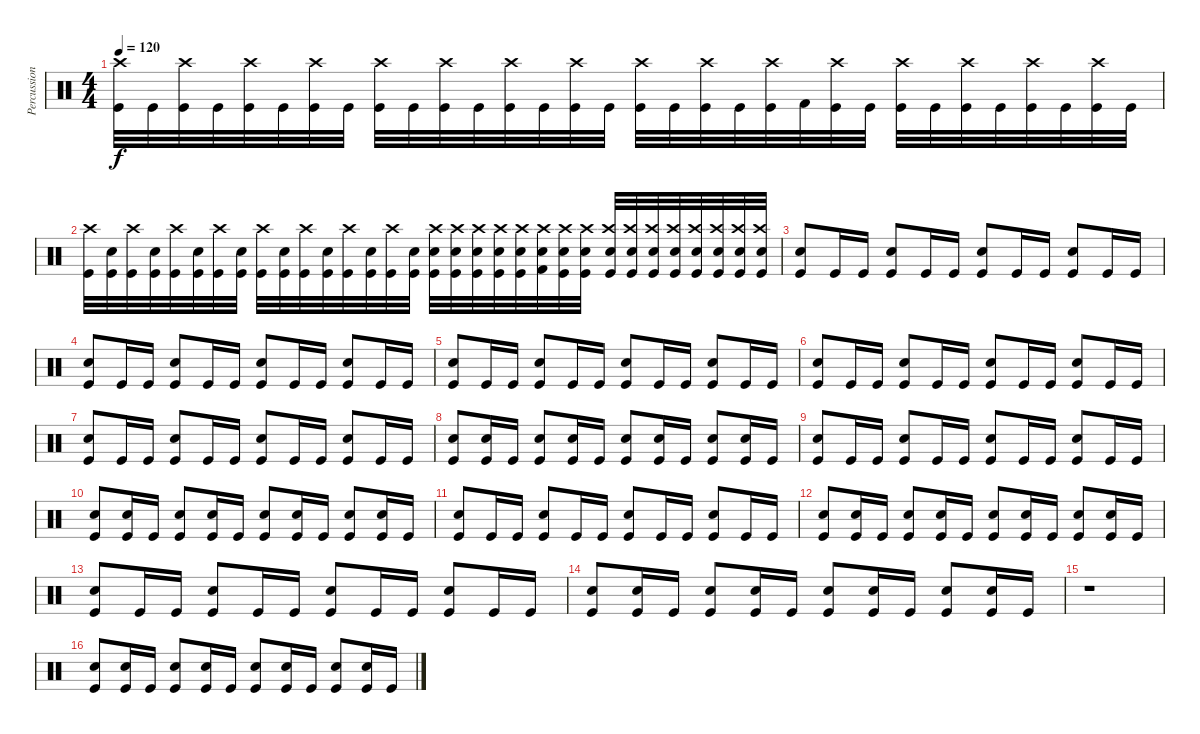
\track ("Percussion" "Percussion") {instrument percussion}
\staff {score}
\articulation defaults
\ts (4 4)
\tempo 120
\clef neutral
\ks c
("Kick (hit)" "Crash high (hit)").32{dy f} "Kick (hit)".32 ("Kick (hit)" "Crash high (hit)").32 "Kick (hit)".32 ("Kick (hit)" "Crash high (hit)").32 "Kick (hit)".32 ("Kick (hit)" "Crash high (hit)").32 "Kick (hit)".32 ("Kick (hit)" "Crash high (hit)").32 "Kick (hit)".32 ("Kick (hit)" "Crash high (hit)").32 "Kick (hit)".32 ("Kick (hit)" "Crash high (hit)").32 "Kick (hit)".32 ("Kick (hit)" "Crash high (hit)").32 "Kick (hit)".32 ("Kick (hit)" "Crash high (hit)").32 "Kick (hit)".32 ("Kick (hit)" "Crash high (hit)").32 "Kick (hit)".32 ("Kick (hit)" "Crash high (hit)").32 "Kick (hit) 2".32 ("Kick (hit)" "Crash high (hit)").32 "Kick (hit)".32 ("Kick (hit)" "Crash high (hit)").32 "Kick (hit)".32 ("Kick (hit)" "Crash high (hit)").32 "Kick (hit)".32 ("Kick (hit)" "Crash high (hit)").32 "Kick (hit)".32 ("Kick (hit)" "Crash high (hit)").32 "Kick (hit)".32 |
("Kick (hit)" "Crash high (hit)").32 ("Kick (hit)" "Snare (hit) 2").32 ("Kick (hit)" "Crash high (hit)").32 ("Kick (hit)" "Snare (hit) 2").32 ("Kick (hit)" "Crash high (hit)").32 ("Kick (hit)" "Snare (hit) 2").32 ("Kick (hit)" "Crash high (hit)").32 ("Kick (hit)" "Snare (hit) 2").32 ("Kick (hit)" "Crash high (hit)").32 ("Kick (hit)" "Snare (hit) 2").32 ("Kick (hit)" "Crash high (hit)").32 ("Kick (hit)" "Snare (hit) 2").32 ("Kick (hit)" "Crash high (hit)").32 ("Kick (hit)" "Snare (hit) 2").32 ("Kick (hit)" "Crash high (hit)").32 ("Kick (hit)" "Snare (hit) 2").32 ("Kick (hit)" "Crash high (hit)" "Snare (hit) 2").32 ("Kick (hit)" "Crash high (hit)" "Snare (hit) 2").32 ("Kick (hit)" "Crash high (hit)" "Snare (hit) 2").32 ("Kick (hit)" "Crash high (hit)" "Snare (hit) 2").32 ("Kick (hit)" "Crash high (hit)" "Snare (hit) 2").32 ("Kick (hit) 2" "Crash high (hit)" "Snare (hit) 2").32 ("Kick (hit)" "Crash high (hit)" "Snare (hit) 2").32 ("Kick (hit)" "Crash high (hit)" "Snare (hit) 2").32 ("Kick (hit)" "Crash high (hit)" "Snare (hit) 2").32 ("Kick (hit)" "Crash high (hit)" "Snare (hit) 2").32 ("Kick (hit)" "Crash high (hit)" "Snare (hit) 2").32 ("Kick (hit)" "Crash high (hit)" "Snare (hit) 2").32 ("Kick (hit)" "Crash high (hit)" "Snare (hit) 2").32 ("Kick (hit)" "Crash high (hit)" "Snare (hit) 2").32 ("Kick (hit)" "Crash high (hit)" "Snare (hit) 2").32 ("Kick (hit)" "Crash high (hit)" "Snare (hit) 2").32 |
("Kick (hit)" "Snare (hit) 2").8 "Kick (hit)".16 "Kick (hit)".16 ("Kick (hit)" "Snare (hit) 2").8 "Kick (hit)".16 "Kick (hit)".16 ("Kick (hit)" "Snare (hit) 2").8 "Kick (hit)".16 "Kick (hit)".16 ("Kick (hit)" "Snare (hit) 2").8 "Kick (hit)".16 "Kick (hit)".16 |
("Kick (hit)" "Snare (hit) 2").8 "Kick (hit)".16 "Kick (hit)".16 ("Kick (hit)" "Snare (hit) 2").8 "Kick (hit)".16 "Kick (hit)".16 ("Kick (hit)" "Snare (hit) 2").8 "Kick (hit)".16 "Kick (hit)".16 ("Kick (hit)" "Snare (hit) 2").8 "Kick (hit)".16 "Kick (hit)".16 |
("Kick (hit)" "Snare (hit) 2").8 "Kick (hit)".16 "Kick (hit)".16 ("Kick (hit)" "Snare (hit) 2").8 "Kick (hit)".16 "Kick (hit)".16 ("Kick (hit)" "Snare (hit) 2").8 "Kick (hit)".16 "Kick (hit)".16 ("Kick (hit)" "Snare (hit) 2").8 "Kick (hit)".16 "Kick (hit)".16 |
("Kick (hit)" "Snare (hit) 2").8 "Kick (hit)".16 "Kick (hit)".16 ("Kick (hit)" "Snare (hit) 2").8 "Kick (hit)".16 "Kick (hit)".16 ("Kick (hit)" "Snare (hit) 2").8 "Kick (hit)".16 "Kick (hit)".16 ("Kick (hit)" "Snare (hit) 2").8 "Kick (hit)".16 "Kick (hit)".16 |
("Kick (hit)" "Snare (hit) 2").8 "Kick (hit)".16 "Kick (hit)".16 ("Kick (hit)" "Snare (hit) 2").8 "Kick (hit)".16 "Kick (hit)".16 ("Kick (hit)" "Snare (hit) 2").8 "Kick (hit)".16 "Kick (hit)".16 ("Kick (hit)" "Snare (hit) 2").8 "Kick (hit)".16 "Kick (hit)".16 |
("Kick (hit)" "Snare (hit) 2").8 ("Kick (hit)" "Snare (hit) 2").16 "Kick (hit)".16 ("Kick (hit)" "Snare (hit) 2").8 ("Kick (hit)" "Snare (hit) 2").16 "Kick (hit)".16 ("Kick (hit)" "Snare (hit) 2").8 ("Kick (hit)" "Snare (hit) 2").16 "Kick (hit)".16 ("Kick (hit)" "Snare (hit) 2").8 ("Kick (hit)" "Snare (hit) 2").16 "Kick (hit)".16 |
("Kick (hit)" "Snare (hit) 2").8 "Kick (hit)".16 "Kick (hit)".16 ("Kick (hit)" "Snare (hit) 2").8 "Kick (hit)".16 "Kick (hit)".16 ("Kick (hit)" "Snare (hit) 2").8 "Kick (hit)".16 "Kick (hit)".16 ("Kick (hit)" "Snare (hit) 2").8 "Kick (hit)".16 "Kick (hit)".16 |
("Kick (hit)" "Snare (hit) 2").8 ("Kick (hit)" "Snare (hit) 2").16 "Kick (hit)".16 ("Kick (hit)" "Snare (hit) 2").8 ("Kick (hit)" "Snare (hit) 2").16 "Kick (hit)".16 ("Kick (hit)" "Snare (hit) 2").8 ("Kick (hit)" "Snare (hit) 2").16 "Kick (hit)".16 ("Kick (hit)" "Snare (hit) 2").8 ("Kick (hit)" "Snare (hit) 2").16 "Kick (hit)".16 |
("Kick (hit)" "Snare (hit) 2").8 "Kick (hit)".16 "Kick (hit)".16 ("Kick (hit)" "Snare (hit) 2").8 "Kick (hit)".16 "Kick (hit)".16 ("Kick (hit)" "Snare (hit) 2").8 "Kick (hit)".16 "Kick (hit)".16 ("Kick (hit)" "Snare (hit) 2").8 "Kick (hit)".16 "Kick (hit)".16 |
("Kick (hit)" "Snare (hit) 2").8 ("Kick (hit)" "Snare (hit) 2").16 "Kick (hit)".16 ("Kick (hit)" "Snare (hit) 2").8 ("Kick (hit)" "Snare (hit) 2").16 "Kick (hit)".16 ("Kick (hit)" "Snare (hit) 2").8 ("Kick (hit)" "Snare (hit) 2").16 "Kick (hit)".16 ("Kick (hit)" "Snare (hit) 2").8 ("Kick (hit)" "Snare (hit) 2").16 "Kick (hit)".16 |
("Kick (hit)" "Snare (hit) 2").8 "Kick (hit)".16 "Kick (hit)".16 ("Kick (hit)" "Snare (hit) 2").8 "Kick (hit)".16 "Kick (hit)".16 ("Kick (hit)" "Snare (hit) 2").8 "Kick (hit)".16 "Kick (hit)".16 ("Kick (hit)" "Snare (hit) 2").8 "Kick (hit)".16 "Kick (hit)".16 |
("Kick (hit)" "Snare (hit) 2").8 ("Kick (hit)" "Snare (hit) 2").16 "Kick (hit)".16 ("Kick (hit)" "Snare (hit) 2").8 ("Kick (hit)" "Snare (hit) 2").16 "Kick (hit)".16 ("Kick (hit)" "Snare (hit) 2").8 ("Kick (hit)" "Snare (hit) 2").16 "Kick (hit)".16 ("Kick (hit)" "Snare (hit) 2").8 ("Kick (hit)" "Snare (hit) 2").16 "Kick (hit)".16 |
r.1 |
("Kick (hit)" "Snare (hit) 2").8 ("Kick (hit)" "Snare (hit) 2").16 "Kick (hit)".16 ("Kick (hit)" "Snare (hit) 2").8 ("Kick (hit)" "Snare (hit) 2").16 "Kick (hit)".16 ("Kick (hit)" "Snare (hit) 2").8 ("Kick (hit)" "Snare (hit) 2").16 "Kick (hit)".16 ("Kick (hit)" "Snare (hit) 2").8 ("Kick (hit)" "Snare (hit) 2").16 "Kick (hit)".16
